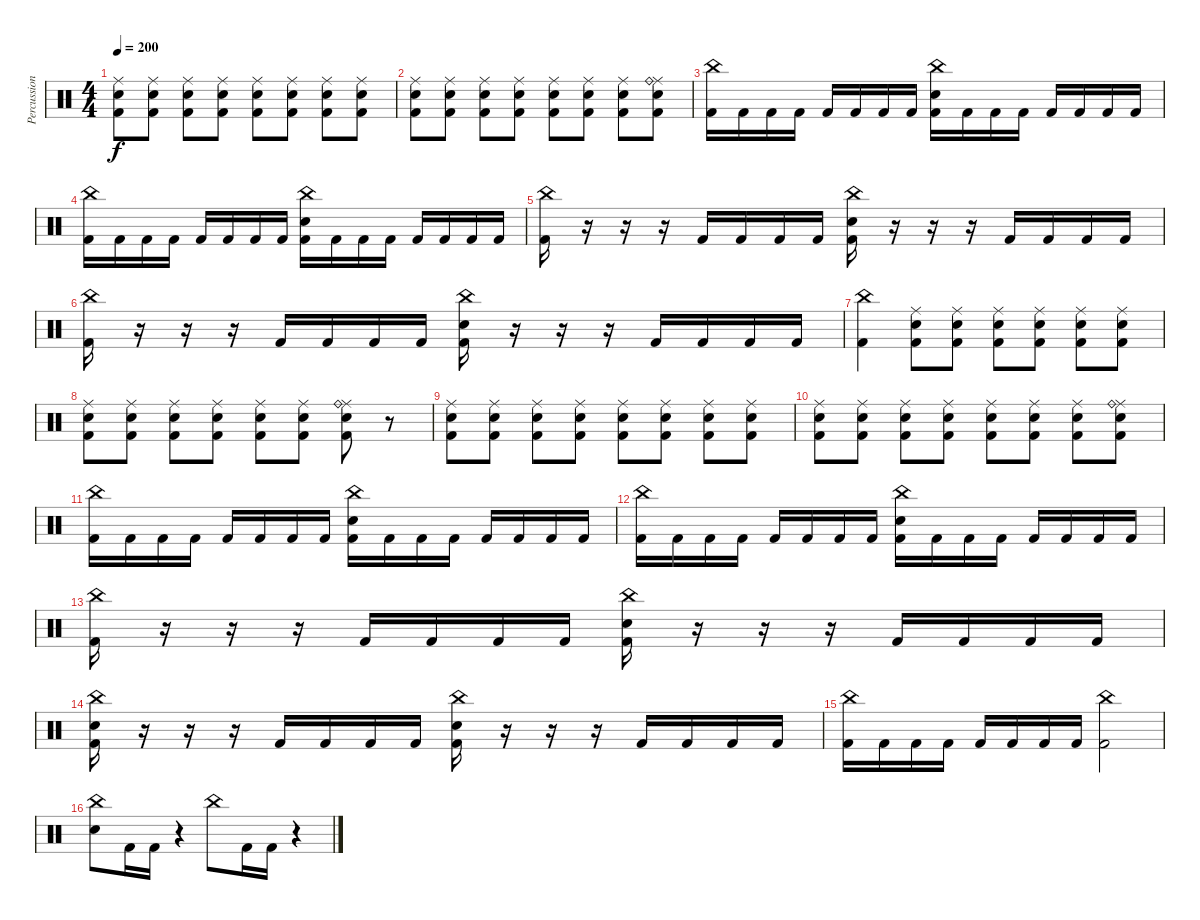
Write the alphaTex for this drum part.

\track ("Percussions" "Percussion") {instrument percussion}
\staff {score}
\articulation defaults
\ts (4 4)
\tempo 200
\clef neutral
\ks c
("Ride (middle)" "Electric Snare (hit)" "Kick (hit) 2").8{dy f} ("Ride (middle)" "Electric Snare (hit)" "Kick (hit) 2").8 ("Ride (middle)" "Electric Snare (hit)" "Kick (hit) 2").8 ("Ride (middle)" "Electric Snare (hit)" "Kick (hit) 2").8 ("Ride (middle)" "Electric Snare (hit)" "Kick (hit) 2").8 ("Ride (middle)" "Electric Snare (hit)" "Kick (hit) 2").8 ("Ride (middle)" "Electric Snare (hit)" "Kick (hit) 2").8 ("Ride (middle)" "Electric Snare (hit)" "Kick (hit) 2").8 |
("Ride (middle)" "Electric Snare (hit)" "Kick (hit) 2").8 ("Ride (middle)" "Electric Snare (hit)" "Kick (hit) 2").8 ("Ride (middle)" "Electric Snare (hit)" "Kick (hit) 2").8 ("Ride (middle)" "Electric Snare (hit)" "Kick (hit) 2").8 ("Ride (middle)" "Electric Snare (hit)" "Kick (hit) 2").8 ("Ride (middle)" "Electric Snare (hit)" "Kick (hit) 2").8 ("Ride (middle)" "Electric Snare (hit)" "Kick (hit) 2").8 ("Ride (middle)" "Ride (bell)" "Electric Snare (hit)" "Kick (hit) 2").8 |
("China (hit)" "Kick (hit) 2").16 "Kick (hit) 2".16 "Kick (hit) 2".16 "Kick (hit) 2".16 "Kick (hit) 2".16 "Kick (hit) 2".16 "Kick (hit) 2".16 "Kick (hit) 2".16 ("China (hit)" "Electric Snare (hit)" "Kick (hit) 2").16 "Kick (hit) 2".16 "Kick (hit) 2".16 "Kick (hit) 2".16 "Kick (hit) 2".16 "Kick (hit) 2".16 "Kick (hit) 2".16 "Kick (hit) 2".16 |
("China (hit)" "Kick (hit) 2").16 "Kick (hit) 2".16 "Kick (hit) 2".16 "Kick (hit) 2".16 "Kick (hit) 2".16 "Kick (hit) 2".16 "Kick (hit) 2".16 "Kick (hit) 2".16 ("China (hit)" "Electric Snare (hit)" "Kick (hit) 2").16 "Kick (hit) 2".16 "Kick (hit) 2".16 "Kick (hit) 2".16 "Kick (hit) 2".16 "Kick (hit) 2".16 "Kick (hit) 2".16 "Kick (hit) 2".16 |
("China (hit)" "Kick (hit) 2").16 r.16 r.16 r.16 "Kick (hit) 2".16 "Kick (hit) 2".16 "Kick (hit) 2".16 "Kick (hit) 2".16 ("China (hit)" "Electric Snare (hit)" "Kick (hit) 2").16 r.16 r.16 r.16 "Kick (hit) 2".16 "Kick (hit) 2".16 "Kick (hit) 2".16 "Kick (hit) 2".16 |
("China (hit)" "Kick (hit) 2").16 r.16 r.16 r.16 "Kick (hit) 2".16 "Kick (hit) 2".16 "Kick (hit) 2".16 "Kick (hit) 2".16 ("China (hit)" "Electric Snare (hit)" "Kick (hit) 2").16 r.16 r.16 r.16 "Kick (hit) 2".16 "Kick (hit) 2".16 "Kick (hit) 2".16 "Kick (hit) 2".16 |
("China (hit)" "Kick (hit) 2").4 ("Ride (middle)" "Electric Snare (hit)" "Kick (hit) 2").8 ("Ride (middle)" "Electric Snare (hit)" "Kick (hit) 2").8 ("Ride (middle)" "Electric Snare (hit)" "Kick (hit) 2").8 ("Ride (middle)" "Electric Snare (hit)" "Kick (hit) 2").8 ("Ride (middle)" "Electric Snare (hit)" "Kick (hit) 2").8 ("Ride (middle)" "Electric Snare (hit)" "Kick (hit) 2").8 |
("Ride (middle)" "Electric Snare (hit)" "Kick (hit) 2").8 ("Ride (middle)" "Electric Snare (hit)" "Kick (hit) 2").8 ("Ride (middle)" "Electric Snare (hit)" "Kick (hit) 2").8 ("Ride (middle)" "Electric Snare (hit)" "Kick (hit) 2").8 ("Ride (middle)" "Electric Snare (hit)" "Kick (hit) 2").8 ("Ride (middle)" "Electric Snare (hit)" "Kick (hit) 2").8 ("Ride (middle)" "Ride (bell)" "Electric Snare (hit)" "Kick (hit) 2").8 r.8 |
("Ride (middle)" "Electric Snare (hit)" "Kick (hit) 2").8 ("Ride (middle)" "Electric Snare (hit)" "Kick (hit) 2").8 ("Ride (middle)" "Electric Snare (hit)" "Kick (hit) 2").8 ("Ride (middle)" "Electric Snare (hit)" "Kick (hit) 2").8 ("Ride (middle)" "Electric Snare (hit)" "Kick (hit) 2").8 ("Ride (middle)" "Electric Snare (hit)" "Kick (hit) 2").8 ("Ride (middle)" "Electric Snare (hit)" "Kick (hit) 2").8 ("Ride (middle)" "Electric Snare (hit)" "Kick (hit) 2").8 |
("Ride (middle)" "Electric Snare (hit)" "Kick (hit) 2").8 ("Ride (middle)" "Electric Snare (hit)" "Kick (hit) 2").8 ("Ride (middle)" "Electric Snare (hit)" "Kick (hit) 2").8 ("Ride (middle)" "Electric Snare (hit)" "Kick (hit) 2").8 ("Ride (middle)" "Electric Snare (hit)" "Kick (hit) 2").8 ("Ride (middle)" "Electric Snare (hit)" "Kick (hit) 2").8 ("Ride (middle)" "Electric Snare (hit)" "Kick (hit) 2").8 ("Ride (middle)" "Ride (bell)" "Electric Snare (hit)" "Kick (hit) 2").8 |
("China (hit)" "Kick (hit) 2").16 "Kick (hit) 2".16 "Kick (hit) 2".16 "Kick (hit) 2".16 "Kick (hit) 2".16 "Kick (hit) 2".16 "Kick (hit) 2".16 "Kick (hit) 2".16 ("China (hit)" "Electric Snare (hit)" "Kick (hit) 2").16 "Kick (hit) 2".16 "Kick (hit) 2".16 "Kick (hit) 2".16 "Kick (hit) 2".16 "Kick (hit) 2".16 "Kick (hit) 2".16 "Kick (hit) 2".16 |
("China (hit)" "Kick (hit) 2").16 "Kick (hit) 2".16 "Kick (hit) 2".16 "Kick (hit) 2".16 "Kick (hit) 2".16 "Kick (hit) 2".16 "Kick (hit) 2".16 "Kick (hit) 2".16 ("China (hit)" "Electric Snare (hit)" "Kick (hit) 2").16 "Kick (hit) 2".16 "Kick (hit) 2".16 "Kick (hit) 2".16 "Kick (hit) 2".16 "Kick (hit) 2".16 "Kick (hit) 2".16 "Kick (hit) 2".16 |
("China (hit)" "Kick (hit) 2").16 r.16 r.16 r.16 "Kick (hit) 2".16 "Kick (hit) 2".16 "Kick (hit) 2".16 "Kick (hit) 2".16 ("China (hit)" "Electric Snare (hit)" "Kick (hit) 2").16 r.16 r.16 r.16 "Kick (hit) 2".16 "Kick (hit) 2".16 "Kick (hit) 2".16 "Kick (hit) 2".16 |
("China (hit)" "Electric Snare (hit)" "Kick (hit) 2").16 r.16 r.16 r.16 "Kick (hit) 2".16 "Kick (hit) 2".16 "Kick (hit) 2".16 "Kick (hit) 2".16 ("China (hit)" "Electric Snare (hit)" "Kick (hit) 2").16 r.16 r.16 r.16 "Kick (hit) 2".16 "Kick (hit) 2".16 "Kick (hit) 2".16 "Kick (hit) 2".16 |
("China (hit)" "Kick (hit) 2").16 "Kick (hit) 2".16 "Kick (hit) 2".16 "Kick (hit) 2".16 "Kick (hit) 2".16 "Kick (hit) 2".16 "Kick (hit) 2".16 "Kick (hit) 2".16 ("China (hit)" "Kick (hit) 2").2 |
("China (hit)" "Electric Snare (hit)").8 "Kick (hit) 2".16 "Kick (hit) 2".16 r.4 "China (hit)".8 "Kick (hit) 2".16 "Kick (hit) 2".16 r.4
